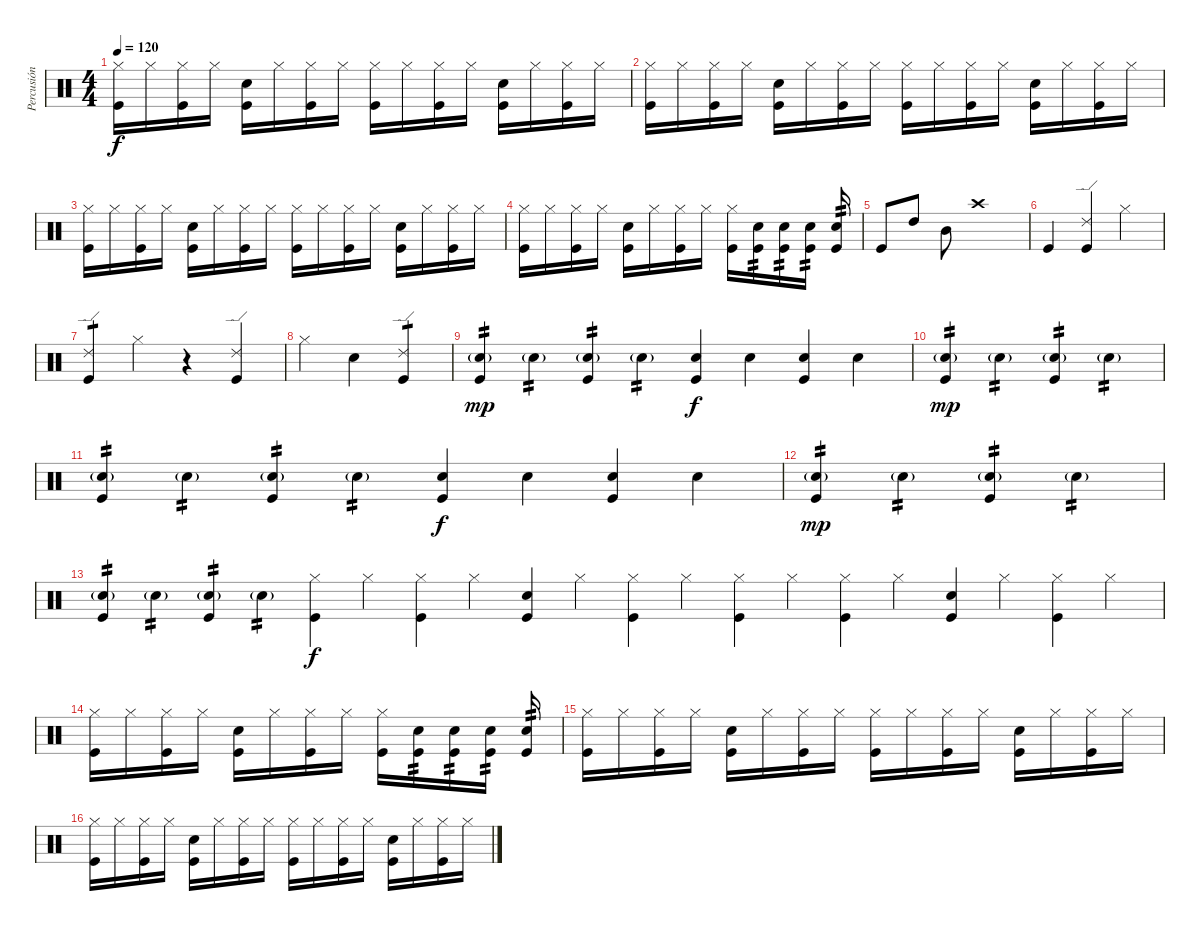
\track ("Percusión" "Percusión") {instrument percussion}
\staff {score}
\articulation defaults
\ts (4 4)
\tempo 120
\clef neutral
\ks c
("Hi-Hat (closed)" "Kick (hit)").16{dy f} "Hi-Hat (closed)".16 ("Hi-Hat (closed)" "Kick (hit)").16 "Hi-Hat (closed)".16 ("Snare (hit) 2" "Kick (hit)").16 "Hi-Hat (closed)".16 ("Hi-Hat (closed)" "Kick (hit)").16 "Hi-Hat (closed)".16 ("Hi-Hat (closed)" "Kick (hit)").16 "Hi-Hat (closed)".16 ("Hi-Hat (closed)" "Kick (hit)").16 "Hi-Hat (closed)".16 ("Snare (hit) 2" "Kick (hit)").16 "Hi-Hat (closed)".16 ("Hi-Hat (closed)" "Kick (hit)").16 "Hi-Hat (closed)".16 |
("Hi-Hat (closed)" "Kick (hit)").16 "Hi-Hat (closed)".16 ("Hi-Hat (closed)" "Kick (hit)").16 "Hi-Hat (closed)".16 ("Snare (hit) 2" "Kick (hit)").16 "Hi-Hat (closed)".16 ("Hi-Hat (closed)" "Kick (hit)").16 "Hi-Hat (closed)".16 ("Hi-Hat (closed)" "Kick (hit)").16 "Hi-Hat (closed)".16 ("Hi-Hat (closed)" "Kick (hit)").16 "Hi-Hat (closed)".16 ("Snare (hit) 2" "Kick (hit)").16 "Hi-Hat (closed)".16 ("Hi-Hat (closed)" "Kick (hit)").16 "Hi-Hat (closed)".16 |
("Hi-Hat (closed)" "Kick (hit)").16 "Hi-Hat (closed)".16 ("Hi-Hat (closed)" "Kick (hit)").16 "Hi-Hat (closed)".16 ("Snare (hit) 2" "Kick (hit)").16 "Hi-Hat (closed)".16 ("Hi-Hat (closed)" "Kick (hit)").16 "Hi-Hat (closed)".16 ("Hi-Hat (closed)" "Kick (hit)").16 "Hi-Hat (closed)".16 ("Hi-Hat (closed)" "Kick (hit)").16 "Hi-Hat (closed)".16 ("Snare (hit) 2" "Kick (hit)").16 "Hi-Hat (closed)".16 ("Hi-Hat (closed)" "Kick (hit)").16 "Hi-Hat (closed)".16 |
("Hi-Hat (closed)" "Kick (hit)").16 "Hi-Hat (closed)".16 ("Hi-Hat (closed)" "Kick (hit)").16 "Hi-Hat (closed)".16 ("Snare (hit) 2" "Kick (hit)").16 "Hi-Hat (closed)".16 ("Hi-Hat (closed)" "Kick (hit)").16 "Hi-Hat (closed)".16 ("Hi-Hat (closed)" "Kick (hit)").16 ("Snare (hit) 2" "Kick (hit)").16{tp 2} ("Snare (hit) 2" "Kick (hit)").16{tp 2} ("Snare (hit) 2" "Kick (hit)").16{tp 2} ("Snare (hit) 2" "Kick (hit)").16{tp 2} |
"Kick (hit)".8 "High Tom (hit)".8 "Mid Tom (hit)".8 "Crash high (hit)".1 |
"Kick (hit)".4 ("Ride (edge) 2" "Kick (hit)").4 "Hi-Hat (closed)".4 |
("Kick (hit)" "Ride (edge) 2").4{tp 1} "Hi-Hat (closed)".4 r.4 ("Ride (edge) 2" "Kick (hit)").4 |
"Hi-Hat (closed)".4 "Snare (hit)".4 ("Ride (edge) 2" "Kick (hit)").4{tp 1} |
("Snare (hit) 2"{g} "Kick (hit)").4{tp 2 dy mp} "Snare (hit) 2"{g}.4{tp 2} ("Snare (hit) 2"{g} "Kick (hit)").4{tp 2} "Snare (hit) 2"{g}.4{tp 2} ("Snare (hit) 2" "Kick (hit)").4{dy f} "Snare (hit) 2".4 ("Snare (hit) 2" "Kick (hit)").4 "Snare (hit) 2".4 |
("Snare (hit) 2"{g} "Kick (hit)").4{tp 2 dy mp} "Snare (hit) 2"{g}.4{tp 2} ("Snare (hit) 2"{g} "Kick (hit)").4{tp 2} "Snare (hit) 2"{g}.4{tp 2} |
("Snare (hit) 2"{g} "Kick (hit)").4{tp 2} "Snare (hit) 2"{g}.4{tp 2} ("Snare (hit) 2"{g} "Kick (hit)").4{tp 2} "Snare (hit) 2"{g}.4{tp 2} ("Snare (hit) 2" "Kick (hit)").4{dy f} "Snare (hit) 2".4 ("Snare (hit) 2" "Kick (hit)").4 "Snare (hit) 2".4 |
("Snare (hit) 2"{g} "Kick (hit)").4{tp 2 dy mp} "Snare (hit) 2"{g}.4{tp 2} ("Snare (hit) 2"{g} "Kick (hit)").4{tp 2} "Snare (hit) 2"{g}.4{tp 2} |
("Snare (hit) 2"{g} "Kick (hit)").4{tp 2} "Snare (hit) 2"{g}.4{tp 2} ("Snare (hit) 2"{g} "Kick (hit)").4{tp 2} "Snare (hit) 2"{g}.4{tp 2} ("Hi-Hat (closed)" "Kick (hit)").4{dy f} "Hi-Hat (closed)".4 ("Hi-Hat (closed)" "Kick (hit)").4 "Hi-Hat (closed)".4 ("Snare (hit) 2" "Kick (hit)").4 "Hi-Hat (closed)".4 ("Hi-Hat (closed)" "Kick (hit)").4 "Hi-Hat (closed)".4 ("Hi-Hat (closed)" "Kick (hit)").4 "Hi-Hat (closed)".4 ("Hi-Hat (closed)" "Kick (hit)").4 "Hi-Hat (closed)".4 ("Snare (hit) 2" "Kick (hit)").4 "Hi-Hat (closed)".4 ("Hi-Hat (closed)" "Kick (hit)").4 "Hi-Hat (closed)".4 |
("Hi-Hat (closed)" "Kick (hit)").16 "Hi-Hat (closed)".16 ("Hi-Hat (closed)" "Kick (hit)").16 "Hi-Hat (closed)".16 ("Snare (hit) 2" "Kick (hit)").16 "Hi-Hat (closed)".16 ("Hi-Hat (closed)" "Kick (hit)").16 "Hi-Hat (closed)".16 ("Hi-Hat (closed)" "Kick (hit)").16 ("Snare (hit) 2" "Kick (hit)").16{tp 2} ("Snare (hit) 2" "Kick (hit)").16{tp 2} ("Snare (hit) 2" "Kick (hit)").16{tp 2} ("Snare (hit) 2" "Kick (hit)").16{tp 2} |
("Hi-Hat (closed)" "Kick (hit)").16 "Hi-Hat (closed)".16 ("Hi-Hat (closed)" "Kick (hit)").16 "Hi-Hat (closed)".16 ("Snare (hit) 2" "Kick (hit)").16 "Hi-Hat (closed)".16 ("Hi-Hat (closed)" "Kick (hit)").16 "Hi-Hat (closed)".16 ("Hi-Hat (closed)" "Kick (hit)").16 "Hi-Hat (closed)".16 ("Hi-Hat (closed)" "Kick (hit)").16 "Hi-Hat (closed)".16 ("Snare (hit) 2" "Kick (hit)").16 "Hi-Hat (closed)".16 ("Hi-Hat (closed)" "Kick (hit)").16 "Hi-Hat (closed)".16 |
("Hi-Hat (closed)" "Kick (hit)").16 "Hi-Hat (closed)".16 ("Hi-Hat (closed)" "Kick (hit)").16 "Hi-Hat (closed)".16 ("Snare (hit) 2" "Kick (hit)").16 "Hi-Hat (closed)".16 ("Hi-Hat (closed)" "Kick (hit)").16 "Hi-Hat (closed)".16 ("Hi-Hat (closed)" "Kick (hit)").16 "Hi-Hat (closed)".16 ("Hi-Hat (closed)" "Kick (hit)").16 "Hi-Hat (closed)".16 ("Snare (hit) 2" "Kick (hit)").16 "Hi-Hat (closed)".16 ("Hi-Hat (closed)" "Kick (hit)").16 "Hi-Hat (closed)".16
